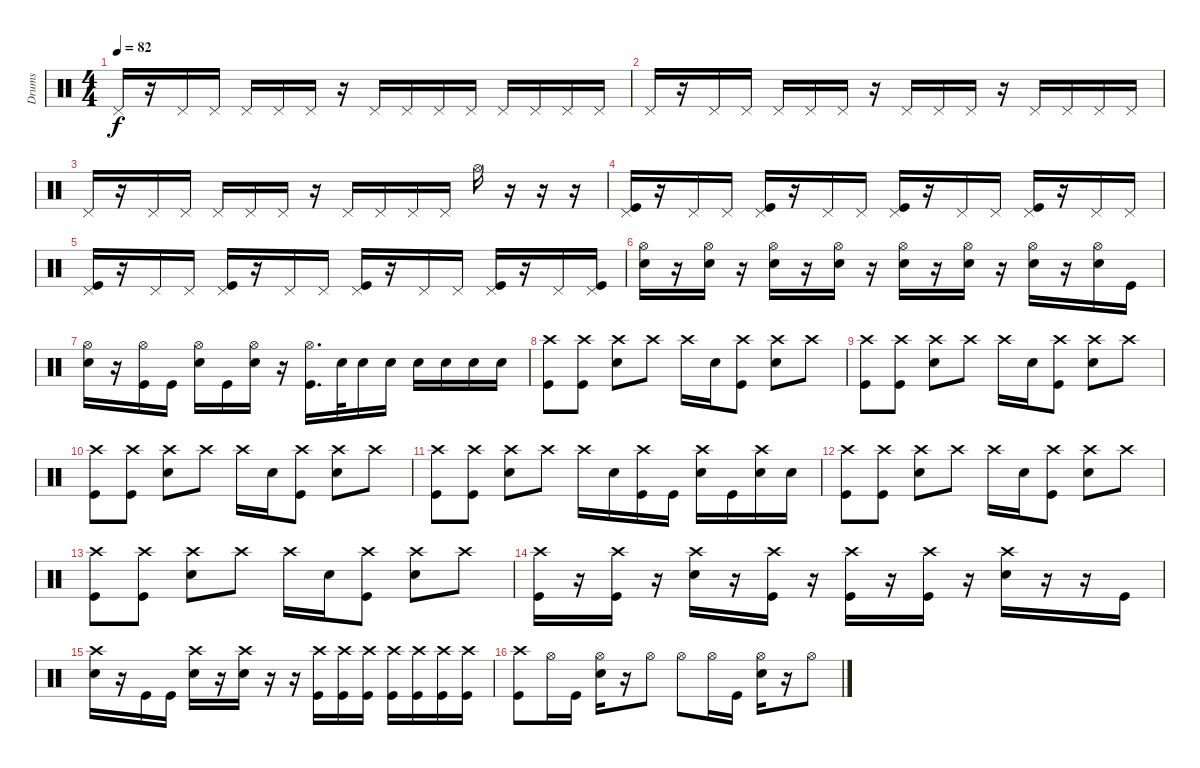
\track ("Drums" "Drums") {instrument percussion}
\staff {score}
\articulation defaults
\ts (4 4)
\tempo 82
\clef neutral
\ks c "Pedal Hi-Hat (hit)".16{dy f}
r.16 "Pedal Hi-Hat (hit)".16 "Pedal Hi-Hat (hit)".16 "Pedal Hi-Hat (hit)".16 "Pedal Hi-Hat (hit)".16 "Pedal Hi-Hat (hit)".16 r.16 "Pedal Hi-Hat (hit)".16 "Pedal Hi-Hat (hit)".16 "Pedal Hi-Hat (hit)".16 "Pedal Hi-Hat (hit)".16 "Pedal Hi-Hat (hit)".16 "Pedal Hi-Hat (hit)".16 "Pedal Hi-Hat (hit)".16 "Pedal Hi-Hat (hit)".16 |
"Pedal Hi-Hat (hit)".16 r.16 "Pedal Hi-Hat (hit)".16 "Pedal Hi-Hat (hit)".16 "Pedal Hi-Hat (hit)".16 "Pedal Hi-Hat (hit)".16 "Pedal Hi-Hat (hit)".16 r.16 "Pedal Hi-Hat (hit)".16 "Pedal Hi-Hat (hit)".16 "Pedal Hi-Hat (hit)".16 r.16 "Pedal Hi-Hat (hit)".16 "Pedal Hi-Hat (hit)".16 "Pedal Hi-Hat (hit)".16 "Pedal Hi-Hat (hit)".16 |
"Pedal Hi-Hat (hit)".16 r.16 "Pedal Hi-Hat (hit)".16 "Pedal Hi-Hat (hit)".16 "Pedal Hi-Hat (hit)".16 "Pedal Hi-Hat (hit)".16 "Pedal Hi-Hat (hit)".16 r.16 "Pedal Hi-Hat (hit)".16 "Pedal Hi-Hat (hit)".16 "Pedal Hi-Hat (hit)".16 "Pedal Hi-Hat (hit)".16 "Hi-Hat (open)".16 r.16 r.16 r.16 |
("Pedal Hi-Hat (hit)" "Kick (hit)").16 r.16 "Pedal Hi-Hat (hit)".16 "Pedal Hi-Hat (hit)".16 ("Pedal Hi-Hat (hit)" "Kick (hit)").16 r.16 "Pedal Hi-Hat (hit)".16 "Pedal Hi-Hat (hit)".16 ("Pedal Hi-Hat (hit)" "Kick (hit)").16 r.16 "Pedal Hi-Hat (hit)".16 "Pedal Hi-Hat (hit)".16 ("Pedal Hi-Hat (hit)" "Kick (hit)").16 r.16 "Pedal Hi-Hat (hit)".16 "Pedal Hi-Hat (hit)".16 |
("Pedal Hi-Hat (hit)" "Kick (hit)").16 r.16 "Pedal Hi-Hat (hit)".16 "Pedal Hi-Hat (hit)".16 ("Pedal Hi-Hat (hit)" "Kick (hit)").16 r.16 "Pedal Hi-Hat (hit)".16 "Pedal Hi-Hat (hit)".16 ("Pedal Hi-Hat (hit)" "Kick (hit)").16 r.16 "Pedal Hi-Hat (hit)".16 "Pedal Hi-Hat (hit)".16 ("Pedal Hi-Hat (hit)" "Kick (hit)").16 r.16 "Pedal Hi-Hat (hit)".16 ("Pedal Hi-Hat (hit)" "Kick (hit)").16 |
("Hi-Hat (open)" "Snare (hit) 2").16 r.16 ("Hi-Hat (open)" "Snare (hit) 2").16 r.16 ("Hi-Hat (open)" "Snare (hit) 2").16 r.16 ("Hi-Hat (open)" "Snare (hit) 2").16 r.16 ("Hi-Hat (open)" "Snare (hit) 2").16 r.16 ("Hi-Hat (open)" "Snare (hit) 2").16 r.16 ("Hi-Hat (open)" "Snare (hit) 2").16 r.16 ("Hi-Hat (open)" "Snare (hit) 2").16 "Kick (hit)".16 |
("Hi-Hat (open)" "Snare (hit) 2").16 r.16 ("Hi-Hat (open)" "Kick (hit)").16 "Kick (hit)".16 ("Hi-Hat (open)" "Snare (hit) 2").16 "Kick (hit)".16 ("Hi-Hat (open)" "Snare (hit) 2").16 r.16 ("Hi-Hat (open)" "Kick (hit)").16{d} "Snare (hit) 2".32 "Snare (hit) 2".16 "Snare (hit) 2".16 "Snare (hit) 2".16 "Snare (hit) 2".16 "Snare (hit) 2".16 "Snare (hit) 2".16 |
("Crash high (hit)" "Kick (hit)").8 ("Crash high (hit)" "Kick (hit)").8 ("Crash high (hit)" "Snare (hit) 2").8 "Crash high (hit)".8 "Crash high (hit)".16 "Snare (hit) 2".16 ("Crash high (hit)" "Kick (hit)").8 ("Crash high (hit)" "Snare (hit) 2").8 "Crash high (hit)".8 |
("Crash high (hit)" "Kick (hit)").8 ("Crash high (hit)" "Kick (hit)").8 ("Crash high (hit)" "Snare (hit) 2").8 "Crash high (hit)".8 "Crash high (hit)".16 "Snare (hit) 2".16 ("Crash high (hit)" "Kick (hit)").8 ("Crash high (hit)" "Snare (hit) 2").8 "Crash high (hit)".8 |
("Crash high (hit)" "Kick (hit)").8 ("Crash high (hit)" "Kick (hit)").8 ("Crash high (hit)" "Snare (hit) 2").8 "Crash high (hit)".8 "Crash high (hit)".16 "Snare (hit) 2".16 ("Crash high (hit)" "Kick (hit)").8 ("Crash high (hit)" "Snare (hit) 2").8 "Crash high (hit)".8 |
("Crash high (hit)" "Kick (hit)").8 ("Crash high (hit)" "Kick (hit)").8 ("Crash high (hit)" "Snare (hit) 2").8 "Crash high (hit)".8 "Crash high (hit)".16 "Snare (hit) 2".16 ("Crash high (hit)" "Kick (hit)").16 "Kick (hit)".16 ("Crash high (hit)" "Snare (hit) 2").16 "Kick (hit)".16 ("Crash high (hit)" "Snare (hit) 2").16 "Snare (hit) 2".16 |
("Crash high (hit)" "Kick (hit)").8 ("Crash high (hit)" "Kick (hit)").8 ("Crash high (hit)" "Snare (hit) 2").8 "Crash high (hit)".8 "Crash high (hit)".16 "Snare (hit) 2".16 ("Crash high (hit)" "Kick (hit)").8 ("Crash high (hit)" "Snare (hit) 2").8 "Crash high (hit)".8 |
("Crash high (hit)" "Kick (hit)").8 ("Crash high (hit)" "Kick (hit)").8 ("Crash high (hit)" "Snare (hit) 2").8 "Crash high (hit)".8 "Crash high (hit)".16 "Snare (hit) 2".16 ("Crash high (hit)" "Kick (hit)").8 ("Crash high (hit)" "Snare (hit) 2").8 "Crash high (hit)".8 |
("Crash high (hit)" "Kick (hit)").16 r.16 ("Crash high (hit)" "Kick (hit)").16 r.16 ("Crash high (hit)" "Snare (hit) 2").16 r.16 ("Crash high (hit)" "Kick (hit)").16 r.16 ("Crash high (hit)" "Kick (hit)").16 r.16 ("Crash high (hit)" "Kick (hit)").16 r.16 ("Crash high (hit)" "Snare (hit) 2").16 r.16 r.16 "Kick (hit)".16 |
("Crash high (hit)" "Snare (hit) 2").16 r.16 "Kick (hit)".16 "Kick (hit)".16 ("Crash high (hit)" "Snare (hit) 2").16 r.16 ("Crash high (hit)" "Snare (hit) 2").16 r.16 r.16 ("Crash high (hit)" "Kick (hit)").16 ("Crash high (hit)" "Kick (hit)").16 ("Crash high (hit)" "Kick (hit)").16 ("Crash high (hit)" "Kick (hit)").16 ("Crash high (hit)" "Kick (hit)").16 ("Crash high (hit)" "Kick (hit)").16 ("Crash high (hit)" "Kick (hit)").16 |
("Crash high (hit)" "Kick (hit)").8 "Hi-Hat (open)".16 "Kick (hit)".16 ("Hi-Hat (open)" "Snare (hit) 2").16 r.16 "Hi-Hat (open)".8 "Hi-Hat (open)".8 "Hi-Hat (open)".16 "Kick (hit)".16 ("Hi-Hat (open)" "Snare (hit) 2").16 r.16 "Hi-Hat (open)".8
